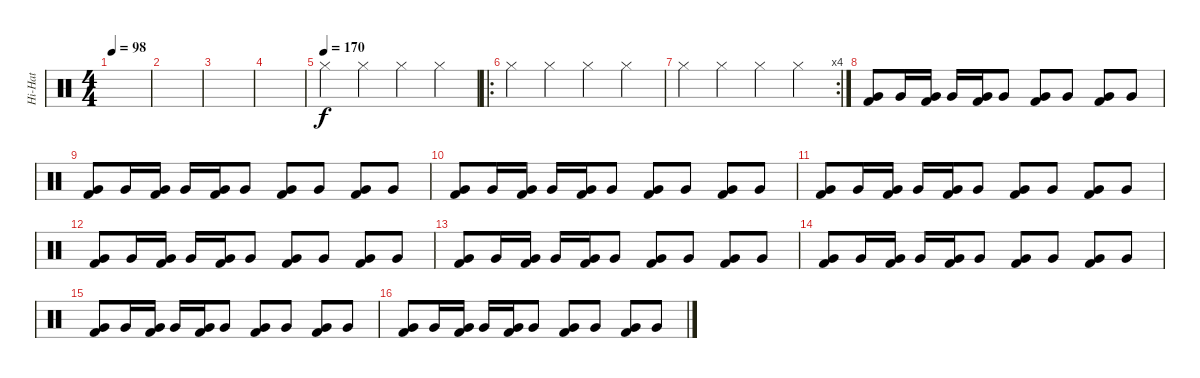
\track ("Hi-Hat" "Hi-Hat") {instrument percussion}
\staff {score}
\articulation defaults
\ts (4 4)
\tempo 98
\clef neutral
\ks c
|
|
|
|
\tempo (170)
"Hi-Hat (closed)".4 "Hi-Hat (closed)".4 "Hi-Hat (closed)".4 "Hi-Hat (closed)".4 |
\ro "Hi-Hat (closed)".4 "Hi-Hat (closed)".4 "Hi-Hat (closed)".4 "Hi-Hat (closed)".4
|
\rc 4 "Hi-Hat (closed)".4 "Hi-Hat (closed)".4 "Hi-Hat (closed)".4 "Hi-Hat (closed)".4
|
("Very Low Tom (hit)" "Kick (hit) 2").8 "Very Low Tom (hit)".16 ("Very Low Tom (hit)" "Kick (hit) 2").16 "Very Low Tom (hit)".16 ("Very Low Tom (hit)" "Kick (hit) 2").16 "Very Low Tom (hit)".8 ("Very Low Tom (hit)" "Kick (hit) 2").8 "Very Low Tom (hit)".8 ("Very Low Tom (hit)" "Kick (hit) 2").8 "Very Low Tom (hit)".8 |
("Very Low Tom (hit)" "Kick (hit) 2").8 "Very Low Tom (hit)".16 ("Very Low Tom (hit)" "Kick (hit) 2").16 "Very Low Tom (hit)".16 ("Very Low Tom (hit)" "Kick (hit) 2").16 "Very Low Tom (hit)".8 ("Very Low Tom (hit)" "Kick (hit) 2").8 "Very Low Tom (hit)".8 ("Very Low Tom (hit)" "Kick (hit) 2").8 "Very Low Tom (hit)".8 |
("Very Low Tom (hit)" "Kick (hit) 2").8 "Very Low Tom (hit)".16 ("Very Low Tom (hit)" "Kick (hit) 2").16 "Very Low Tom (hit)".16 ("Very Low Tom (hit)" "Kick (hit) 2").16 "Very Low Tom (hit)".8 ("Very Low Tom (hit)" "Kick (hit) 2").8 "Very Low Tom (hit)".8 ("Very Low Tom (hit)" "Kick (hit) 2").8 "Very Low Tom (hit)".8 |
("Very Low Tom (hit)" "Kick (hit) 2").8 "Very Low Tom (hit)".16 ("Very Low Tom (hit)" "Kick (hit) 2").16 "Very Low Tom (hit)".16 ("Very Low Tom (hit)" "Kick (hit) 2").16 "Very Low Tom (hit)".8 ("Very Low Tom (hit)" "Kick (hit) 2").8 "Very Low Tom (hit)".8 ("Very Low Tom (hit)" "Kick (hit) 2").8 "Very Low Tom (hit)".8 |
("Very Low Tom (hit)" "Kick (hit) 2").8 "Very Low Tom (hit)".16 ("Very Low Tom (hit)" "Kick (hit) 2").16 "Very Low Tom (hit)".16 ("Very Low Tom (hit)" "Kick (hit) 2").16 "Very Low Tom (hit)".8 ("Very Low Tom (hit)" "Kick (hit) 2").8 "Very Low Tom (hit)".8 ("Very Low Tom (hit)" "Kick (hit) 2").8 "Very Low Tom (hit)".8 |
("Very Low Tom (hit)" "Kick (hit) 2").8 "Very Low Tom (hit)".16 ("Very Low Tom (hit)" "Kick (hit) 2").16 "Very Low Tom (hit)".16 ("Very Low Tom (hit)" "Kick (hit) 2").16 "Very Low Tom (hit)".8 ("Very Low Tom (hit)" "Kick (hit) 2").8 "Very Low Tom (hit)".8 ("Very Low Tom (hit)" "Kick (hit) 2").8 "Very Low Tom (hit)".8 |
("Very Low Tom (hit)" "Kick (hit) 2").8 "Very Low Tom (hit)".16 ("Very Low Tom (hit)" "Kick (hit) 2").16 "Very Low Tom (hit)".16 ("Very Low Tom (hit)" "Kick (hit) 2").16 "Very Low Tom (hit)".8 ("Very Low Tom (hit)" "Kick (hit) 2").8 "Very Low Tom (hit)".8 ("Very Low Tom (hit)" "Kick (hit) 2").8 "Very Low Tom (hit)".8 |
("Very Low Tom (hit)" "Kick (hit) 2").8 "Very Low Tom (hit)".16 ("Very Low Tom (hit)" "Kick (hit) 2").16 "Very Low Tom (hit)".16 ("Very Low Tom (hit)" "Kick (hit) 2").16 "Very Low Tom (hit)".8 ("Very Low Tom (hit)" "Kick (hit) 2").8 "Very Low Tom (hit)".8 ("Very Low Tom (hit)" "Kick (hit) 2").8 "Very Low Tom (hit)".8 |
("Very Low Tom (hit)" "Kick (hit) 2").8 "Very Low Tom (hit)".16 ("Very Low Tom (hit)" "Kick (hit) 2").16 "Very Low Tom (hit)".16 ("Very Low Tom (hit)" "Kick (hit) 2").16 "Very Low Tom (hit)".8 ("Very Low Tom (hit)" "Kick (hit) 2").8 "Very Low Tom (hit)".8 ("Very Low Tom (hit)" "Kick (hit) 2").8 "Very Low Tom (hit)".8
